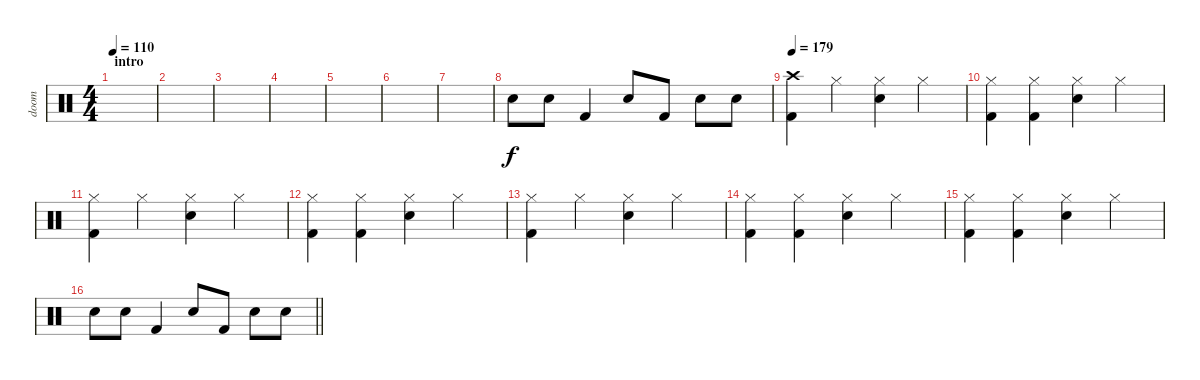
\track ("doom" "doom") {instrument percussion}
\staff {score}
\articulation defaults
\ts (4 4)
\section ("" "intro")
\tempo 110
\tempo 179
\tempo 110
\clef neutral
\ks c
|
|
|
|
|
|
|
"Snare (hit) 2".8 "Snare (hit) 2".8 "Kick (hit) 2".4 "Snare (hit) 2".8 "Kick (hit) 2".8 "Snare (hit) 2".8 "Snare (hit) 2".8 |
\tempo 179
("Crash high (hit)" "Kick (hit) 2").4 "Hi-Hat (closed)".4 ("Hi-Hat (closed)" "Snare (hit) 2").4 "Hi-Hat (closed)".4 |
("Hi-Hat (closed)" "Kick (hit) 2").4 ("Hi-Hat (closed)" "Kick (hit) 2").4 ("Hi-Hat (closed)" "Snare (hit) 2").4 "Hi-Hat (closed)".4 |
("Hi-Hat (closed)" "Kick (hit) 2").4 "Hi-Hat (closed)".4 ("Hi-Hat (closed)" "Snare (hit) 2").4 "Hi-Hat (closed)".4 |
("Hi-Hat (closed)" "Kick (hit) 2").4 ("Hi-Hat (closed)" "Kick (hit) 2").4 ("Hi-Hat (closed)" "Snare (hit) 2").4 "Hi-Hat (closed)".4 |
("Hi-Hat (closed)" "Kick (hit) 2").4 "Hi-Hat (closed)".4 ("Hi-Hat (closed)" "Snare (hit) 2").4 "Hi-Hat (closed)".4 |
("Hi-Hat (closed)" "Kick (hit) 2").4 ("Hi-Hat (closed)" "Kick (hit) 2").4 ("Hi-Hat (closed)" "Snare (hit) 2").4 "Hi-Hat (closed)".4 |
("Hi-Hat (closed)" "Kick (hit) 2").4 ("Hi-Hat (closed)" "Kick (hit) 2").4 ("Hi-Hat (closed)" "Snare (hit) 2").4 "Hi-Hat (closed)".4 |
\barLineRight lightlight "Snare (hit) 2".8 "Snare (hit) 2".8 "Kick (hit) 2".4 "Snare (hit) 2".8 "Kick (hit) 2".8 "Snare (hit) 2".8 "Snare (hit) 2".8
